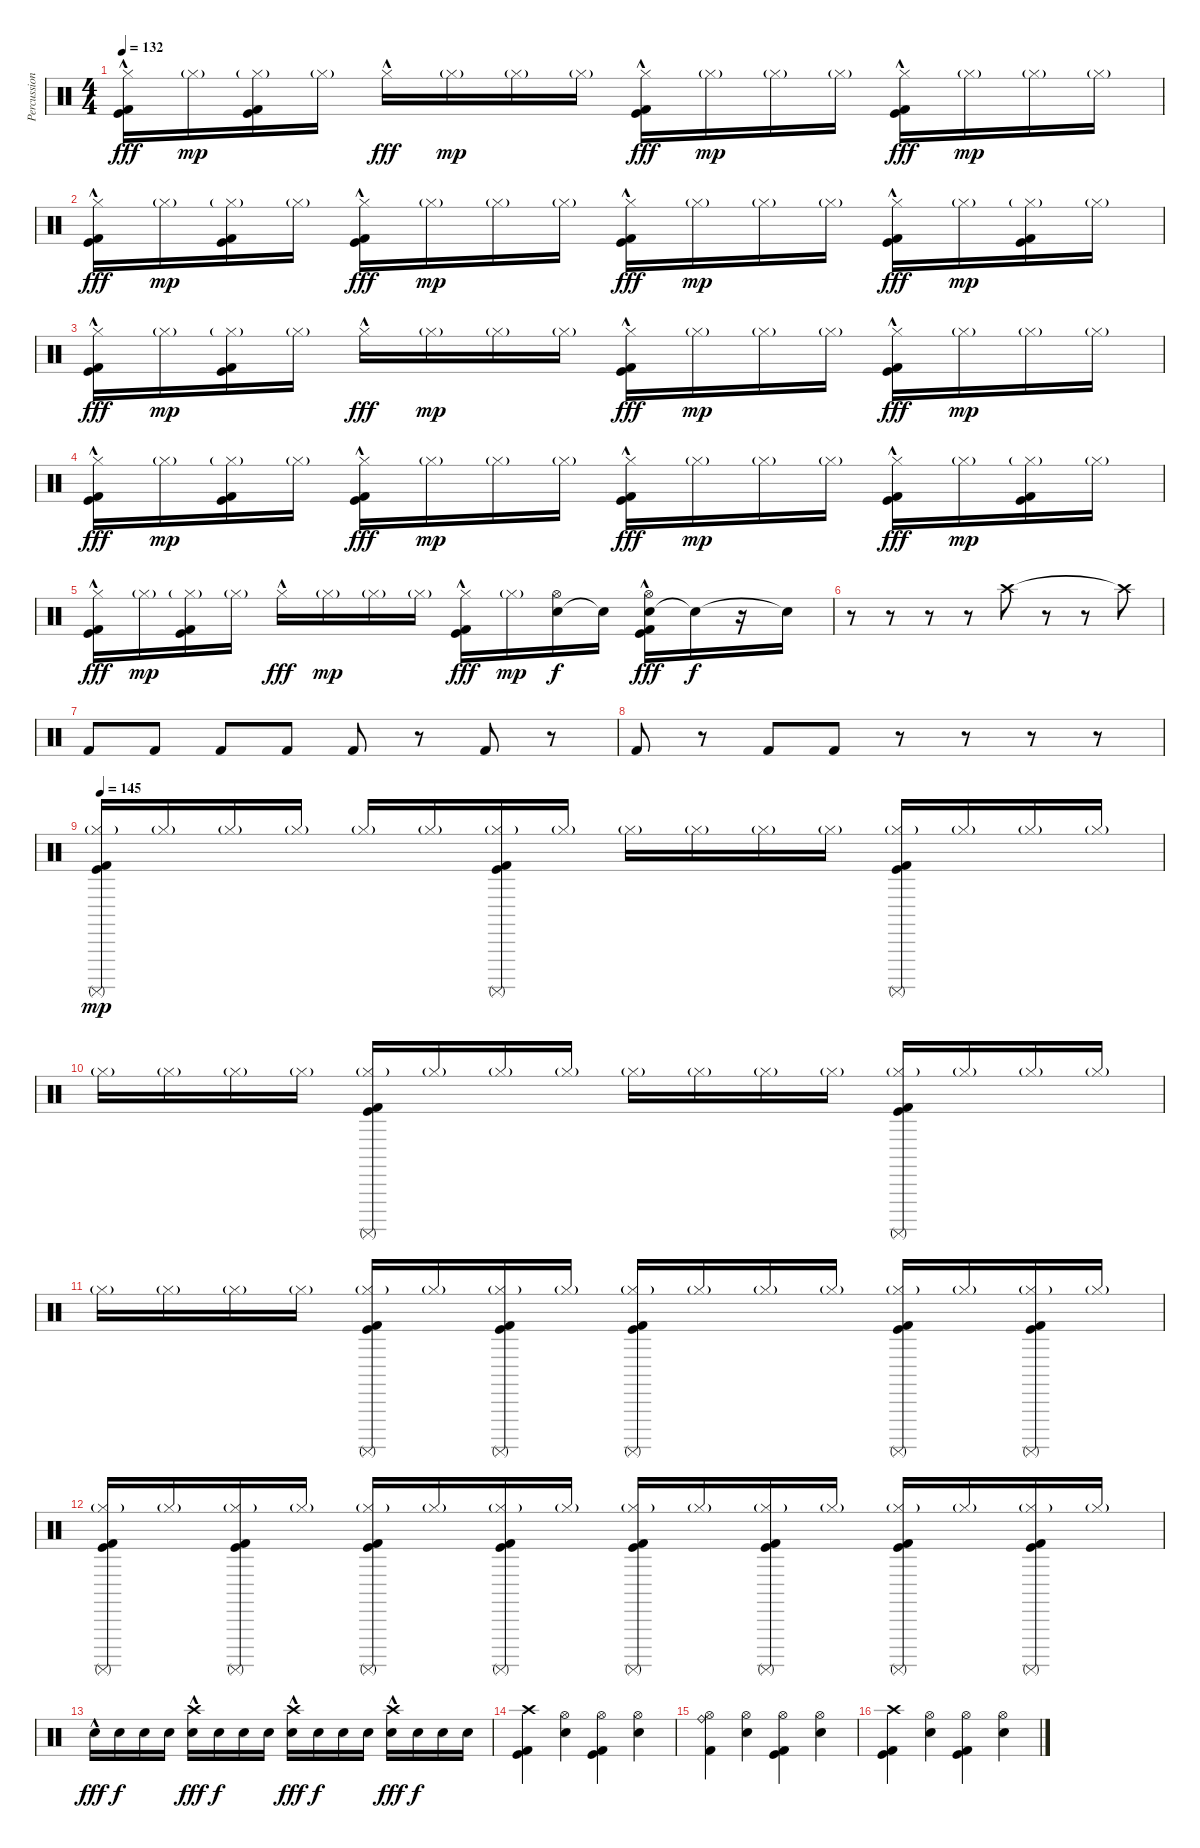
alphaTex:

\track ("Percussion" "Percussion") {instrument percussion}
\staff {score}
\articulation defaults
\ts (4 4)
\tempo 132
\clef neutral
\ks c
("Hi-Hat (closed)"{hac} "Kick (hit)" "Kick (hit) 2").16{dy fff} "Hi-Hat (closed)"{g}.16{dy mp} ("Hi-Hat (closed)"{g} "Kick (hit)" "Kick (hit) 2").16 "Hi-Hat (closed)"{g}.16 "Hi-Hat (closed)"{hac}.16{dy fff} "Hi-Hat (closed)"{g}.16{dy mp} "Hi-Hat (closed)"{g}.16 "Hi-Hat (closed)"{g}.16 ("Hi-Hat (closed)"{hac} "Kick (hit)" "Kick (hit) 2").16{dy fff} "Hi-Hat (closed)"{g}.16{dy mp} "Hi-Hat (closed)"{g}.16 "Hi-Hat (closed)"{g}.16 ("Hi-Hat (closed)"{hac} "Kick (hit) 2" "Kick (hit)").16{dy fff} "Hi-Hat (closed)"{g}.16{dy mp} "Hi-Hat (closed)"{g}.16 "Hi-Hat (closed)"{g}.16 |
("Hi-Hat (closed)"{hac} "Kick (hit)" "Kick (hit) 2").16{dy fff} "Hi-Hat (closed)"{g}.16{dy mp} ("Hi-Hat (closed)"{g} "Kick (hit)" "Kick (hit) 2").16 "Hi-Hat (closed)"{g}.16 ("Hi-Hat (closed)"{hac} "Kick (hit)" "Kick (hit) 2").16{dy fff} "Hi-Hat (closed)"{g}.16{dy mp} "Hi-Hat (closed)"{g}.16 "Hi-Hat (closed)"{g}.16 ("Hi-Hat (closed)"{hac} "Kick (hit) 2" "Kick (hit)").16{dy fff} "Hi-Hat (closed)"{g}.16{dy mp} "Hi-Hat (closed)"{g}.16 "Hi-Hat (closed)"{g}.16 ("Hi-Hat (closed)"{hac} "Kick (hit)" "Kick (hit) 2").16{dy fff} "Hi-Hat (closed)"{g}.16{dy mp} ("Hi-Hat (closed)"{g} "Kick (hit)" "Kick (hit) 2").16 "Hi-Hat (closed)"{g}.16 |
("Hi-Hat (closed)"{hac} "Kick (hit)" "Kick (hit) 2").16{dy fff} "Hi-Hat (closed)"{g}.16{dy mp} ("Hi-Hat (closed)"{g} "Kick (hit)" "Kick (hit) 2").16 "Hi-Hat (closed)"{g}.16 "Hi-Hat (closed)"{hac}.16{dy fff} "Hi-Hat (closed)"{g}.16{dy mp} "Hi-Hat (closed)"{g}.16 "Hi-Hat (closed)"{g}.16 ("Hi-Hat (closed)"{hac} "Kick (hit)" "Kick (hit) 2").16{dy fff} "Hi-Hat (closed)"{g}.16{dy mp} "Hi-Hat (closed)"{g}.16 "Hi-Hat (closed)"{g}.16 ("Hi-Hat (closed)"{hac} "Kick (hit) 2" "Kick (hit)").16{dy fff} "Hi-Hat (closed)"{g}.16{dy mp} "Hi-Hat (closed)"{g}.16 "Hi-Hat (closed)"{g}.16 |
("Hi-Hat (closed)"{hac} "Kick (hit)" "Kick (hit) 2").16{dy fff} "Hi-Hat (closed)"{g}.16{dy mp} ("Hi-Hat (closed)"{g} "Kick (hit)" "Kick (hit) 2").16 "Hi-Hat (closed)"{g}.16 ("Hi-Hat (closed)"{hac} "Kick (hit)" "Kick (hit) 2").16{dy fff} "Hi-Hat (closed)"{g}.16{dy mp} "Hi-Hat (closed)"{g}.16 "Hi-Hat (closed)"{g}.16 ("Hi-Hat (closed)"{hac} "Kick (hit) 2" "Kick (hit)").16{dy fff} "Hi-Hat (closed)"{g}.16{dy mp} "Hi-Hat (closed)"{g}.16 "Hi-Hat (closed)"{g}.16 ("Hi-Hat (closed)"{hac} "Kick (hit)" "Kick (hit) 2").16{dy fff} "Hi-Hat (closed)"{g}.16{dy mp} ("Hi-Hat (closed)"{g} "Kick (hit)" "Kick (hit) 2").16 "Hi-Hat (closed)"{g}.16 |
("Hi-Hat (closed)"{hac} "Kick (hit)" "Kick (hit) 2").16{dy fff} "Hi-Hat (closed)"{g}.16{dy mp} ("Hi-Hat (closed)"{g} "Kick (hit)" "Kick (hit) 2").16 "Hi-Hat (closed)"{g}.16 "Hi-Hat (closed)"{hac}.16{dy fff} "Hi-Hat (closed)"{g}.16{dy mp} "Hi-Hat (closed)"{g}.16 "Hi-Hat (closed)"{g}.16 ("Hi-Hat (closed)"{hac} "Kick (hit)" "Kick (hit) 2").16{dy fff} "Hi-Hat (closed)"{g}.16{dy mp} ("Snare (hit) 2" "Hi-Hat (open)").16{dy f} "Snare (hit)"{t}.16 ("Snare (hit) 2"{hac} "Hi-Hat (open)" "Kick (hit) 2" "Kick (hit)").16{dy fff} "Snare (hit)"{t}.16{dy f} r.16 "Snare (hit)"{t}.16 |
r.8{volume 0} r.8 r.8 r.8{volume 0} "Crash high (hit)".8{volume 16} r.8 r.8 "Crash high (hit)"{t}.8 |
"Kick (hit) 2".8 "Kick (hit) 2".8 "Kick (hit) 2".8 "Kick (hit) 2".8 "Kick (hit) 2".8 r.8 "Kick (hit) 2".8 r.8 |
"Kick (hit) 2".8 r.8 "Kick (hit) 2".8 "Kick (hit) 2".8 r.8 r.8 r.8 r.8 |
\tempo 145
("Hi-Hat (closed)"{g} "Kick (hit) 2" "Kick (hit)" "Surdo (mute)").16{dy mp} "Hi-Hat (closed)"{g}.16 "Hi-Hat (closed)"{g}.16 "Hi-Hat (closed)"{g}.16 "Hi-Hat (closed)"{g}.16 "Hi-Hat (closed)"{g}.16 ("Hi-Hat (closed)"{g} "Surdo (mute)" "Kick (hit)" "Kick (hit) 2").16 "Hi-Hat (closed)"{g}.16 "Hi-Hat (closed)"{g}.16 "Hi-Hat (closed)"{g}.16 "Hi-Hat (closed)"{g}.16 "Hi-Hat (closed)"{g}.16 ("Hi-Hat (closed)"{g} "Kick (hit) 2" "Kick (hit)" "Surdo (mute)").16 "Hi-Hat (closed)"{g}.16 "Hi-Hat (closed)"{g}.16 "Hi-Hat (closed)"{g}.16 |
"Hi-Hat (closed)"{g}.16 "Hi-Hat (closed)"{g}.16 "Hi-Hat (closed)"{g}.16 "Hi-Hat (closed)"{g}.16 ("Hi-Hat (closed)"{g} "Kick (hit)" "Kick (hit) 2" "Surdo (mute)").16 "Hi-Hat (closed)"{g}.16 "Hi-Hat (closed)"{g}.16 "Hi-Hat (closed)"{g}.16 "Hi-Hat (closed)"{g}.16 "Hi-Hat (closed)"{g}.16 "Hi-Hat (closed)"{g}.16 "Hi-Hat (closed)"{g}.16 ("Hi-Hat (closed)"{g} "Kick (hit) 2" "Kick (hit)" "Surdo (mute)").16 "Hi-Hat (closed)"{g}.16 "Hi-Hat (closed)"{g}.16 "Hi-Hat (closed)"{g}.16 |
"Hi-Hat (closed)"{g}.16 "Hi-Hat (closed)"{g}.16 "Hi-Hat (closed)"{g}.16 "Hi-Hat (closed)"{g}.16 ("Hi-Hat (closed)"{g} "Kick (hit)" "Kick (hit) 2" "Surdo (mute)").16 "Hi-Hat (closed)"{g}.16 ("Hi-Hat (closed)"{g} "Kick (hit)" "Surdo (mute)" "Kick (hit) 2").16 "Hi-Hat (closed)"{g}.16 ("Hi-Hat (closed)"{g} "Kick (hit)" "Kick (hit) 2" "Surdo (mute)").16 "Hi-Hat (closed)"{g}.16 "Hi-Hat (closed)"{g}.16 "Hi-Hat (closed)"{g}.16 ("Hi-Hat (closed)"{g} "Kick (hit) 2" "Kick (hit)" "Surdo (mute)").16 "Hi-Hat (closed)"{g}.16 ("Hi-Hat (closed)"{g} "Kick (hit)" "Kick (hit) 2" "Surdo (mute)").16 "Hi-Hat (closed)"{g}.16 |
("Hi-Hat (closed)"{g} "Kick (hit) 2" "Kick (hit)" "Surdo (mute)").16 "Hi-Hat (closed)"{g}.16 ("Hi-Hat (closed)"{g} "Kick (hit) 2" "Kick (hit)" "Surdo (mute)").16 "Hi-Hat (closed)"{g}.16 ("Hi-Hat (closed)"{g} "Kick (hit) 2" "Kick (hit)" "Surdo (mute)").16 "Hi-Hat (closed)"{g}.16 ("Hi-Hat (closed)"{g} "Kick (hit) 2" "Kick (hit)" "Surdo (mute)").16 "Hi-Hat (closed)"{g}.16 ("Hi-Hat (closed)"{g} "Kick (hit) 2" "Kick (hit)" "Surdo (mute)").16 "Hi-Hat (closed)"{g}.16 ("Hi-Hat (closed)"{g} "Kick (hit) 2" "Kick (hit)" "Surdo (mute)").16 "Hi-Hat (closed)"{g}.16 ("Hi-Hat (closed)"{g} "Kick (hit) 2" "Kick (hit)" "Surdo (mute)").16 "Hi-Hat (closed)"{g}.16 ("Hi-Hat (closed)"{g} "Kick (hit) 2" "Kick (hit)" "Surdo (mute)").16 "Hi-Hat (closed)"{g}.16 |
"Snare (hit) 2"{hac}.16{dy fff} "Snare (hit) 2".16{dy f} "Snare (hit) 2".16 "Snare (hit) 2".16 ("Crash high (hit)" "Snare (hit) 2"{hac}).16{dy fff} "Snare (hit) 2".16{dy f} "Snare (hit) 2".16 "Snare (hit) 2".16 ("Crash high (hit)" "Snare (hit) 2"{hac}).16{dy fff} "Snare (hit) 2".16{dy f} "Snare (hit) 2".16 "Snare (hit) 2".16 ("Crash high (hit)" "Snare (hit) 2"{hac}).16{dy fff} "Snare (hit) 2".16{dy f} "Snare (hit) 2".16 "Snare (hit) 2".16 |
("Crash high (hit)" "Kick (hit)" "Kick (hit) 2").4 ("Hi-Hat (open)" "Snare (hit) 2").4 ("Hi-Hat (open)" "Kick (hit)" "Kick (hit) 2").4 ("Hi-Hat (open)" "Snare (hit) 2").4 |
("Hi-Hat (open)" "Kick (hit) 2" "Ride (bell)").4 ("Hi-Hat (open)" "Snare (hit) 2").4 ("Hi-Hat (open)" "Kick (hit) 2" "Kick (hit)").4 ("Hi-Hat (open)" "Snare (hit) 2").4 |
("Crash high (hit)" "Kick (hit)" "Kick (hit) 2").4 ("Hi-Hat (open)" "Snare (hit) 2").4 ("Hi-Hat (open)" "Kick (hit)" "Kick (hit) 2").4 ("Hi-Hat (open)" "Snare (hit) 2").4
